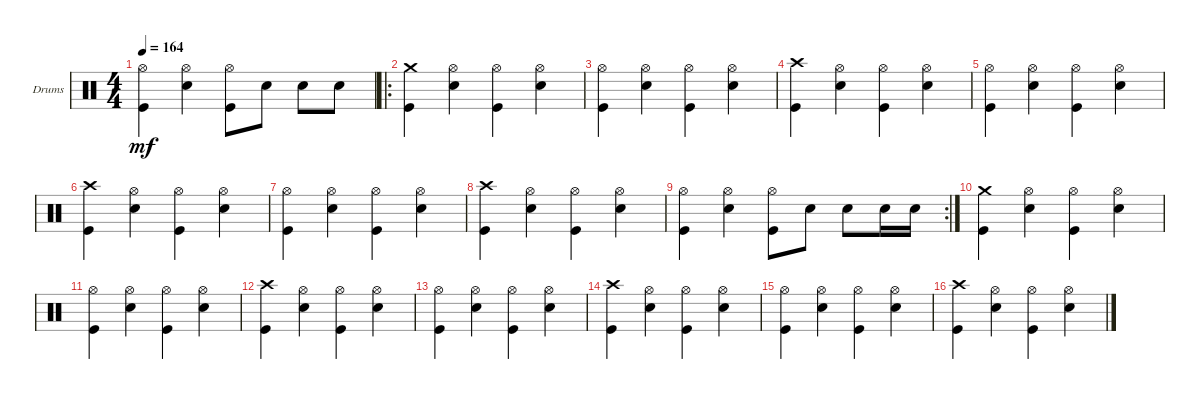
\defaultSystemsLayout 4
\bracketExtendMode groupsimilarinstruments
\firstSystemTrackNameOrientation horizontal
\otherSystemsTrackNameOrientation horizontal
\track ("Drumkit" "Drums") {instrument percussion}
\staff {score}
\articulation defaults
\ts (4 4)
\tempo 164
\clef neutral
\ks c
("Kick (hit)" "Hi-Hat (open)").4{dy mf} ("Snare (hit) 2" "Hi-Hat (open)").4 ("Kick (hit)" "Hi-Hat (open)").8 "Snare (hit) 2".8 "Snare (hit) 2".8 "Snare (hit) 2".8 |
\ro
("Kick (hit)" "Crash medium (hit)").4 ("Snare (hit) 2" "Hi-Hat (open)").4 ("Kick (hit)" "Hi-Hat (open)").4 ("Snare (hit) 2" "Hi-Hat (open)").4 |
("Kick (hit)" "Hi-Hat (open)").4 ("Snare (hit) 2" "Hi-Hat (open)").4 ("Kick (hit)" "Hi-Hat (open)").4 ("Snare (hit) 2" "Hi-Hat (open)").4 |
("Kick (hit)" "Crash high (hit)").4 ("Snare (hit) 2" "Hi-Hat (open)").4 ("Kick (hit)" "Hi-Hat (open)").4 ("Snare (hit) 2" "Hi-Hat (open)").4 |
("Kick (hit)" "Hi-Hat (open)").4 ("Snare (hit) 2" "Hi-Hat (open)").4 ("Kick (hit)" "Hi-Hat (open)").4 ("Snare (hit) 2" "Hi-Hat (open)").4 |
("Kick (hit)" "Crash high (hit)").4 ("Snare (hit) 2" "Hi-Hat (open)").4 ("Kick (hit)" "Hi-Hat (open)").4 ("Snare (hit) 2" "Hi-Hat (open)").4 |
("Kick (hit)" "Hi-Hat (open)").4 ("Snare (hit) 2" "Hi-Hat (open)").4 ("Kick (hit)" "Hi-Hat (open)").4 ("Snare (hit) 2" "Hi-Hat (open)").4 |
("Kick (hit)" "Crash high (hit)").4 ("Snare (hit) 2" "Hi-Hat (open)").4 ("Kick (hit)" "Hi-Hat (open)").4 ("Snare (hit) 2" "Hi-Hat (open)").4 |
\rc 2
("Kick (hit)" "Hi-Hat (open)").4 ("Snare (hit) 2" "Hi-Hat (open)").4 ("Kick (hit)" "Hi-Hat (open)").8 "Snare (hit) 2".8 "Snare (hit) 2".8 "Snare (hit) 2".16 "Snare (hit) 2".16 |
("Kick (hit)" "Crash medium (hit)").4 ("Snare (hit) 2" "Hi-Hat (open)").4 ("Kick (hit)" "Hi-Hat (open)").4 ("Snare (hit) 2" "Hi-Hat (open)").4 |
("Kick (hit)" "Hi-Hat (open)").4 ("Snare (hit) 2" "Hi-Hat (open)").4 ("Kick (hit)" "Hi-Hat (open)").4 ("Snare (hit) 2" "Hi-Hat (open)").4 |
("Kick (hit)" "Crash high (hit)").4 ("Snare (hit) 2" "Hi-Hat (open)").4 ("Kick (hit)" "Hi-Hat (open)").4 ("Snare (hit) 2" "Hi-Hat (open)").4 |
("Kick (hit)" "Hi-Hat (open)").4 ("Snare (hit) 2" "Hi-Hat (open)").4 ("Kick (hit)" "Hi-Hat (open)").4 ("Snare (hit) 2" "Hi-Hat (open)").4 |
("Kick (hit)" "Crash high (hit)").4 ("Snare (hit) 2" "Hi-Hat (open)").4 ("Kick (hit)" "Hi-Hat (open)").4 ("Snare (hit) 2" "Hi-Hat (open)").4 |
("Kick (hit)" "Hi-Hat (open)").4 ("Snare (hit) 2" "Hi-Hat (open)").4 ("Kick (hit)" "Hi-Hat (open)").4 ("Snare (hit) 2" "Hi-Hat (open)").4 |
("Kick (hit)" "Crash high (hit)").4 ("Snare (hit) 2" "Hi-Hat (open)").4 ("Kick (hit)" "Hi-Hat (open)").4 ("Snare (hit) 2" "Hi-Hat (open)").4
